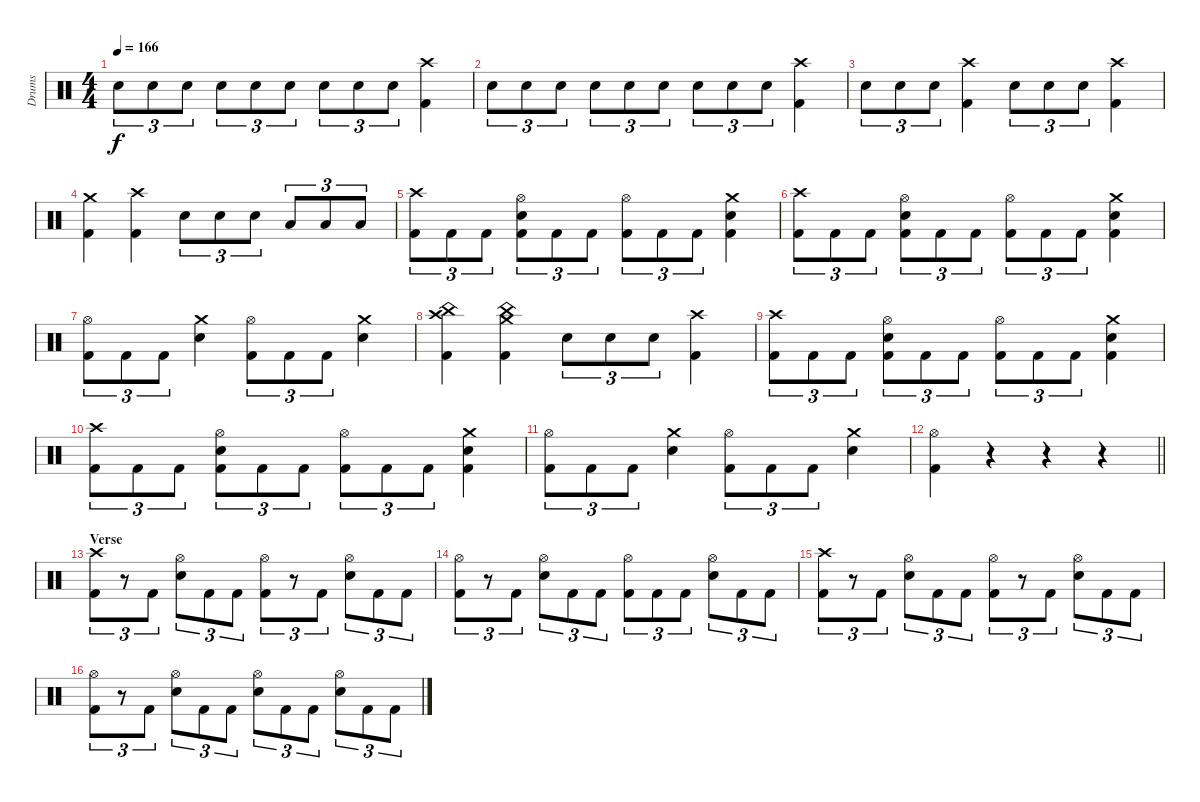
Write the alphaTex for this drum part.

\track ("Drums" "Drums") {instrument percussion}
\staff {score}
\articulation defaults
\ts (4 4)
\tempo 166
\clef neutral
\ks c "Snare (hit) 2".8{tu (3 2) dy f} "Snare (hit) 2".8{tu (3 2)} "Snare (hit) 2".8{tu (3 2)} "Snare (hit) 2".8{tu (3 2)} "Snare (hit) 2".8{tu (3 2)} "Snare (hit) 2".8{tu (3 2)} "Snare (hit) 2".8{tu (3 2)} "Snare (hit) 2".8{tu (3 2)} "Snare (hit) 2".8{tu (3 2)}
("Crash high (hit)" "Kick (hit) 2").4 |
"Snare (hit) 2".8{tu (3 2)} "Snare (hit) 2".8{tu (3 2)} "Snare (hit) 2".8{tu (3 2)} "Snare (hit) 2".8{tu (3 2)} "Snare (hit) 2".8{tu (3 2)} "Snare (hit) 2".8{tu (3 2)} "Snare (hit) 2".8{tu (3 2)} "Snare (hit) 2".8{tu (3 2)} "Snare (hit) 2".8{tu (3 2)} ("Crash high (hit)" "Kick (hit) 2").4 |
"Snare (hit) 2".8{tu (3 2)} "Snare (hit) 2".8{tu (3 2)} "Snare (hit) 2".8{tu (3 2)} ("Crash high (hit)" "Kick (hit) 2").4 "Snare (hit) 2".8{tu (3 2)} "Snare (hit) 2".8{tu (3 2)} "Snare (hit) 2".8{tu (3 2)} ("Crash high (hit)" "Kick (hit) 2").4 |
("Crash medium (hit)" "Kick (hit) 2").4 ("Crash high (hit)" "Kick (hit) 2").4 "Snare (hit) 2".8{tu (3 2)} "Snare (hit) 2".8{tu (3 2)} "Snare (hit) 2".8{tu (3 2)} "Low Tom (hit)".8{tu (3 2)} "Low Tom (hit)".8{tu (3 2)} "Low Floor Tom (hit)".8{tu (3 2)} |
("Crash high (hit)" "Kick (hit) 2").8{tu (3 2)} "Kick (hit) 2".8{tu (3 2)} "Kick (hit) 2".8{tu (3 2)} ("Hi-Hat (open)" "Snare (hit) 2" "Kick (hit) 2").8{tu (3 2)} "Kick (hit) 2".8{tu (3 2)} "Kick (hit) 2".8{tu (3 2)} ("Hi-Hat (open)" "Kick (hit) 2").8{tu (3 2)} "Kick (hit) 2".8{tu (3 2)} "Kick (hit) 2".8{tu (3 2)} ("Crash medium (hit)" "Snare (hit) 2" "Kick (hit) 2").4 |
("Crash high (hit)" "Kick (hit) 2").8{tu (3 2)} "Kick (hit) 2".8{tu (3 2)} "Kick (hit) 2".8{tu (3 2)} ("Hi-Hat (open)" "Snare (hit) 2" "Kick (hit) 2").8{tu (3 2)} "Kick (hit) 2".8{tu (3 2)} "Kick (hit) 2".8{tu (3 2)} ("Hi-Hat (open)" "Kick (hit) 2").8{tu (3 2)} "Kick (hit) 2".8{tu (3 2)} "Kick (hit) 2".8{tu (3 2)} ("Crash medium (hit)" "Snare (hit) 2" "Kick (hit) 2").4 |
("Hi-Hat (open)" "Kick (hit) 2").8{tu (3 2)} "Kick (hit) 2".8{tu (3 2)} "Kick (hit) 2".8{tu (3 2)} ("Crash medium (hit)" "Snare (hit) 2").4 ("Hi-Hat (open)" "Kick (hit) 2").8{tu (3 2)} "Kick (hit) 2".8{tu (3 2)} "Kick (hit) 2".8{tu (3 2)} ("Crash medium (hit)" "Snare (hit) 2").4 |
("China (hit)" "Crash high (hit)" "Kick (hit) 2").4 ("China (hit)" "Crash medium (hit)" "Kick (hit) 2").4 "Snare (hit) 2".8{tu (3 2)} "Snare (hit) 2".8{tu (3 2)} "Snare (hit) 2".8{tu (3 2)} ("Crash high (hit)" "Kick (hit) 2").4 |
("Crash high (hit)" "Kick (hit) 2").8{tu (3 2)} "Kick (hit) 2".8{tu (3 2)} "Kick (hit) 2".8{tu (3 2)} ("Hi-Hat (open)" "Snare (hit) 2" "Kick (hit) 2").8{tu (3 2)} "Kick (hit) 2".8{tu (3 2)} "Kick (hit) 2".8{tu (3 2)} ("Hi-Hat (open)" "Kick (hit) 2").8{tu (3 2)} "Kick (hit) 2".8{tu (3 2)} "Kick (hit) 2".8{tu (3 2)} ("Crash medium (hit)" "Snare (hit) 2" "Kick (hit) 2").4 |
("Crash high (hit)" "Kick (hit) 2").8{tu (3 2)} "Kick (hit) 2".8{tu (3 2)} "Kick (hit) 2".8{tu (3 2)} ("Hi-Hat (open)" "Snare (hit) 2" "Kick (hit) 2").8{tu (3 2)} "Kick (hit) 2".8{tu (3 2)} "Kick (hit) 2".8{tu (3 2)} ("Hi-Hat (open)" "Kick (hit) 2").8{tu (3 2)} "Kick (hit) 2".8{tu (3 2)} "Kick (hit) 2".8{tu (3 2)} ("Crash medium (hit)" "Snare (hit) 2" "Kick (hit) 2").4 |
("Hi-Hat (open)" "Kick (hit) 2").8{tu (3 2)} "Kick (hit) 2".8{tu (3 2)} "Kick (hit) 2".8{tu (3 2)} ("Crash medium (hit)" "Snare (hit) 2").4 ("Hi-Hat (open)" "Kick (hit) 2").8{tu (3 2)} "Kick (hit) 2".8{tu (3 2)} "Kick (hit) 2".8{tu (3 2)} ("Crash medium (hit)" "Snare (hit) 2").4 |
\barLineRight lightlight
("Hi-Hat (open)" "Kick (hit) 2").4 r.4 r.4 r.4 |
\section ("" "Verse")
("Crash high (hit)" "Kick (hit) 2").8{tu (3 2)} r.8{tu (3 2)} "Kick (hit) 2".8{tu (3 2)} ("Hi-Hat (open)" "Snare (hit) 2").8{tu (3 2)} "Kick (hit) 2".8{tu (3 2)} "Kick (hit) 2".8{tu (3 2)} ("Hi-Hat (open)" "Kick (hit) 2").8{tu (3 2)} r.8{tu (3 2)} "Kick (hit) 2".8{tu (3 2)} ("Hi-Hat (open)" "Snare (hit) 2").8{tu (3 2)} "Kick (hit) 2".8{tu (3 2)} "Kick (hit) 2".8{tu (3 2)} |
("Hi-Hat (open)" "Kick (hit) 2").8{tu (3 2)} r.8{tu (3 2)} "Kick (hit) 2".8{tu (3 2)} ("Hi-Hat (open)" "Snare (hit) 2").8{tu (3 2)} "Kick (hit) 2".8{tu (3 2)} "Kick (hit) 2".8{tu (3 2)} ("Hi-Hat (open)" "Kick (hit) 2").8{tu (3 2)} "Kick (hit) 2".8{tu (3 2)} "Kick (hit) 2".8{tu (3 2)} ("Hi-Hat (open)" "Snare (hit) 2").8{tu (3 2)} "Kick (hit) 2".8{tu (3 2)} "Kick (hit) 2".8{tu (3 2)} |
("Crash high (hit)" "Kick (hit) 2").8{tu (3 2)} r.8{tu (3 2)} "Kick (hit) 2".8{tu (3 2)} ("Hi-Hat (open)" "Snare (hit) 2").8{tu (3 2)} "Kick (hit) 2".8{tu (3 2)} "Kick (hit) 2".8{tu (3 2)} ("Hi-Hat (open)" "Kick (hit) 2").8{tu (3 2)} r.8{tu (3 2)} "Kick (hit) 2".8{tu (3 2)} ("Hi-Hat (open)" "Snare (hit) 2").8{tu (3 2)} "Kick (hit) 2".8{tu (3 2)} "Kick (hit) 2".8{tu (3 2)} |
("Hi-Hat (open)" "Kick (hit) 2").8{tu (3 2)} r.8{tu (3 2)} "Kick (hit) 2".8{tu (3 2)} ("Hi-Hat (open)" "Snare (hit) 2").8{tu (3 2)} "Kick (hit) 2".8{tu (3 2)} "Kick (hit) 2".8{tu (3 2)} ("Hi-Hat (open)" "Snare (hit) 2").8{tu (3 2)} "Kick (hit) 2".8{tu (3 2)} "Kick (hit) 2".8{tu (3 2)} ("Hi-Hat (open)" "Snare (hit) 2").8{tu (3 2)} "Kick (hit) 2".8{tu (3 2)} "Kick (hit) 2".8{tu (3 2)}
